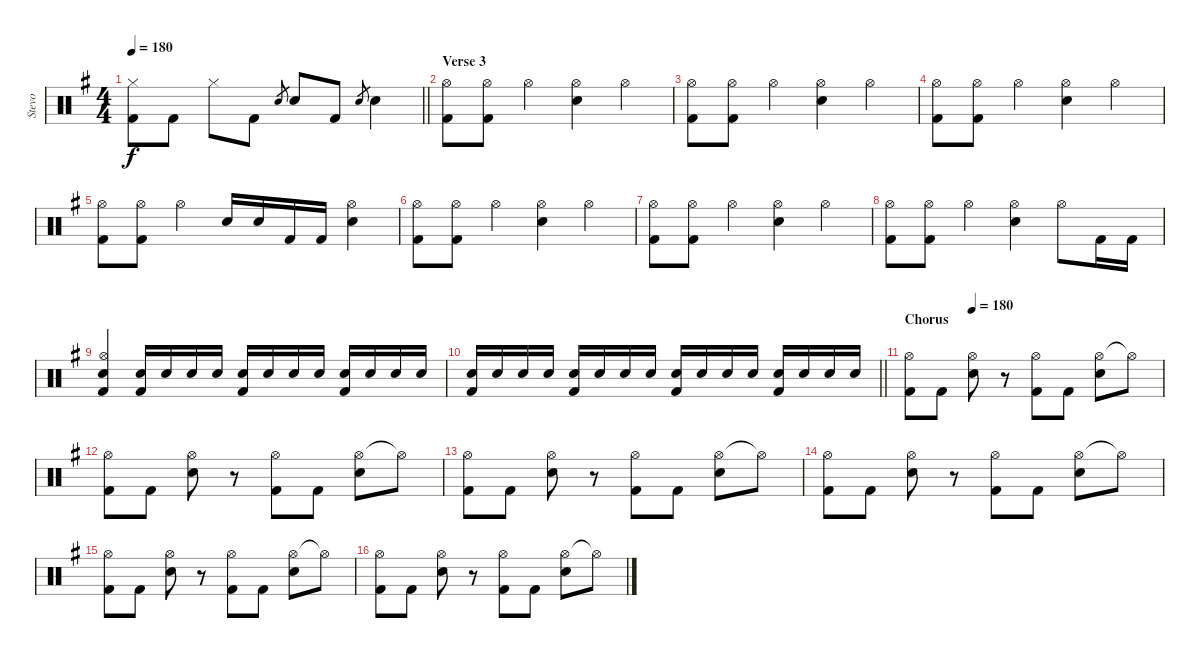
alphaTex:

\track ("Stevo" "Stevo") {instrument percussion}
\staff {score}
\articulation defaults
\ts (4 4)
\tempo 180
\clef neutral
\barLineRight lightlight
\ks g
("Hi-Hat (closed)" "Kick (hit) 2").8{dy f} "Kick (hit) 2".8 "Hi-Hat (closed)".8 "Kick (hit) 2".8 "Snare (hit) 2".8{gr} "Snare (hit) 2".8 "Kick (hit) 2".8 "Snare (hit) 2".8{gr} "Snare (hit) 2".4 |
\section ("" "Verse 3")
("Hi-Hat (open)" "Kick (hit) 2").8 ("Hi-Hat (open)" "Kick (hit) 2").8 "Hi-Hat (open)".4 ("Hi-Hat (open)" "Snare (hit) 2").4 "Hi-Hat (open)".4 |
("Hi-Hat (open)" "Kick (hit) 2").8 ("Hi-Hat (open)" "Kick (hit) 2").8 "Hi-Hat (open)".4 ("Hi-Hat (open)" "Snare (hit) 2").4 "Hi-Hat (open)".4 |
("Hi-Hat (open)" "Kick (hit) 2").8 ("Hi-Hat (open)" "Kick (hit) 2").8 "Hi-Hat (open)".4 ("Hi-Hat (open)" "Snare (hit) 2").4 "Hi-Hat (open)".4 |
("Hi-Hat (open)" "Kick (hit) 2").8 ("Hi-Hat (open)" "Kick (hit) 2").8 "Hi-Hat (open)".4 "Snare (hit) 2".16 "Snare (hit) 2".16 "Kick (hit) 2".16 "Kick (hit) 2".16 ("Hi-Hat (open)" "Snare (hit) 2").4 |
("Hi-Hat (open)" "Kick (hit) 2").8 ("Hi-Hat (open)" "Kick (hit) 2").8 "Hi-Hat (open)".4 ("Hi-Hat (open)" "Snare (hit) 2").4 "Hi-Hat (open)".4 |
("Hi-Hat (open)" "Kick (hit) 2").8 ("Hi-Hat (open)" "Kick (hit) 2").8 "Hi-Hat (open)".4 ("Hi-Hat (open)" "Snare (hit) 2").4 "Hi-Hat (open)".4 |
("Hi-Hat (open)" "Kick (hit) 2").8 ("Hi-Hat (open)" "Kick (hit) 2").8 "Hi-Hat (open)".4 ("Hi-Hat (open)" "Snare (hit) 2").4 "Hi-Hat (open)".8 "Kick (hit) 2".16 "Kick (hit) 2".16 |
("Hi-Hat (open)" "Electric Snare (hit)" "Kick (hit) 2").4 ("Electric Snare (hit)" "Kick (hit) 2").16 "Electric Snare (hit)".16 "Electric Snare (hit)".16 "Electric Snare (hit)".16 ("Electric Snare (hit)" "Kick (hit) 2").16 "Electric Snare (hit)".16 "Electric Snare (hit)".16 "Electric Snare (hit)".16 ("Electric Snare (hit)" "Kick (hit) 2").16 "Electric Snare (hit)".16 "Electric Snare (hit)".16 "Electric Snare (hit)".16 |
\barLineRight lightlight
("Electric Snare (hit)" "Kick (hit) 2").16 "Electric Snare (hit)".16 "Electric Snare (hit)".16 "Electric Snare (hit)".16 ("Electric Snare (hit)" "Kick (hit) 2").16 "Electric Snare (hit)".16 "Electric Snare (hit)".16 "Electric Snare (hit)".16 ("Electric Snare (hit)" "Kick (hit) 2").16 "Electric Snare (hit)".16 "Electric Snare (hit)".16 "Electric Snare (hit)".16 ("Electric Snare (hit)" "Kick (hit) 2").16 "Electric Snare (hit)".16 "Electric Snare (hit)".16 "Electric Snare (hit)".16 |
\section ("" "Chorus")
\tempo (180 0.25)
("Hi-Hat (open)" "Kick (hit) 2").8 "Kick (hit) 2".8 ("Hi-Hat (open)" "Snare (hit) 2").8 r.8 ("Hi-Hat (open)" "Kick (hit) 2").8 "Kick (hit) 2".8 ("Hi-Hat (open)" "Snare (hit) 2").8 "Hi-Hat (open)"{t}.8 |
("Hi-Hat (open)" "Kick (hit) 2").8 "Kick (hit) 2".8 ("Hi-Hat (open)" "Snare (hit) 2").8 r.8 ("Hi-Hat (open)" "Kick (hit) 2").8 "Kick (hit) 2".8 ("Hi-Hat (open)" "Snare (hit) 2").8 "Hi-Hat (open)"{t}.8 |
("Hi-Hat (open)" "Kick (hit) 2").8 "Kick (hit) 2".8 ("Hi-Hat (open)" "Snare (hit) 2").8 r.8 ("Hi-Hat (open)" "Kick (hit) 2").8 "Kick (hit) 2".8 ("Hi-Hat (open)" "Snare (hit) 2").8 "Hi-Hat (open)"{t}.8 |
("Hi-Hat (open)" "Kick (hit) 2").8 "Kick (hit) 2".8 ("Hi-Hat (open)" "Snare (hit) 2").8 r.8 ("Hi-Hat (open)" "Kick (hit) 2").8 "Kick (hit) 2".8 ("Hi-Hat (open)" "Snare (hit) 2").8 "Hi-Hat (open)"{t}.8 |
("Hi-Hat (open)" "Kick (hit) 2").8 "Kick (hit) 2".8 ("Hi-Hat (open)" "Snare (hit) 2").8 r.8 ("Hi-Hat (open)" "Kick (hit) 2").8 "Kick (hit) 2".8 ("Hi-Hat (open)" "Snare (hit) 2").8 "Hi-Hat (open)"{t}.8 |
("Hi-Hat (open)" "Kick (hit) 2").8 "Kick (hit) 2".8 ("Hi-Hat (open)" "Snare (hit) 2").8 r.8 ("Hi-Hat (open)" "Kick (hit) 2").8 "Kick (hit) 2".8 ("Hi-Hat (open)" "Snare (hit) 2").8 "Hi-Hat (open)"{t}.8
